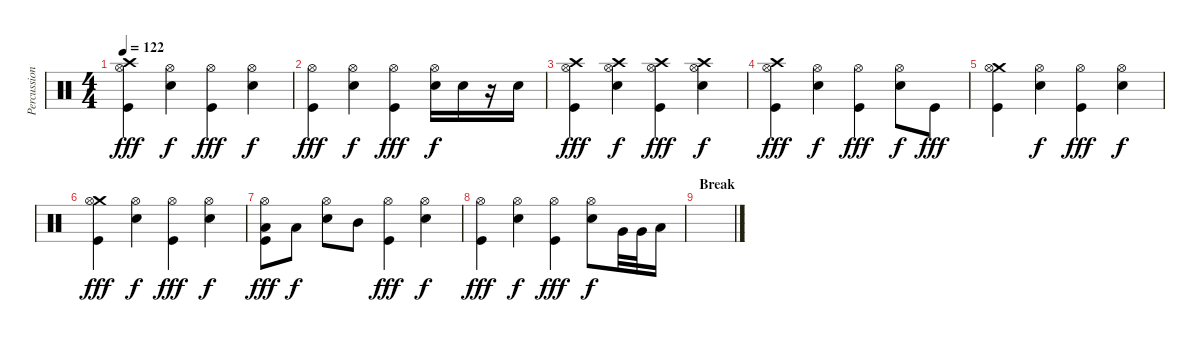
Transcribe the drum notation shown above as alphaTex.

\track ("Percussion" "Percussion") {instrument percussion}
\staff {score}
\articulation defaults
\ts (4 4)
\tempo 122
\clef neutral
\ks c
("Crash high (hit)" "Hi-Hat (open)" "Kick (hit)").4{dy fff} ("Hi-Hat (open)" "Electric Snare (hit)").4{dy f} ("Hi-Hat (open)" "Kick (hit)").4{dy fff} ("Hi-Hat (open)" "Electric Snare (hit)").4{dy f} |
("Hi-Hat (open)" "Kick (hit)").4{dy fff} ("Hi-Hat (open)" "Electric Snare (hit)").4{dy f} ("Hi-Hat (open)" "Kick (hit)").4{dy fff} ("Hi-Hat (open)" "Electric Snare (hit)").16{dy f} "Electric Snare (hit)".16 r.16 "Electric Snare (hit)".16 |
("Crash high (hit)" "Hi-Hat (open)" "Kick (hit)").4{dy fff} ("Crash high (hit)" "Hi-Hat (open)" "Electric Snare (hit)").4{dy f} ("Crash high (hit)" "Hi-Hat (open)" "Kick (hit)").4{dy fff} ("Crash high (hit)" "Hi-Hat (open)" "Electric Snare (hit)").4{dy f} |
("Crash high (hit)" "Hi-Hat (open)" "Kick (hit)").4{dy fff} ("Hi-Hat (open)" "Electric Snare (hit)").4{dy f} ("Hi-Hat (open)" "Kick (hit)").4{dy fff} ("Hi-Hat (open)" "Electric Snare (hit)").8{dy f} "Kick (hit)".8{dy fff} |
("Crash medium (hit)" "Hi-Hat (open)" "Kick (hit)").4 ("Hi-Hat (open)" "Electric Snare (hit)").4{dy f} ("Hi-Hat (open)" "Kick (hit)").4{dy fff} ("Hi-Hat (open)" "Electric Snare (hit)").4{dy f} |
("Crash medium (hit)" "Hi-Hat (open)" "Kick (hit)").4{dy fff} ("Hi-Hat (open)" "Electric Snare (hit)").4{dy f} ("Hi-Hat (open)" "Kick (hit)").4{dy fff} ("Hi-Hat (open)" "Electric Snare (hit)").4{dy f} |
("Hi-Hat (open)" "Low Tom (hit)" "Kick (hit)").8{dy fff} "Low Tom (hit)".8{dy f} ("Hi-Hat (open)" "Electric Snare (hit)").8 "Mid Tom (hit)".8 ("Hi-Hat (open)" "Kick (hit)").4{dy fff} ("Hi-Hat (open)" "Electric Snare (hit)").4{dy f} |
("Hi-Hat (open)" "Kick (hit)").4{dy fff} ("Hi-Hat (open)" "Electric Snare (hit)").4{dy f} ("Hi-Hat (open)" "Kick (hit)").4{dy fff} ("Hi-Hat (open)" "Electric Snare (hit)").8{dy f} "Very Low Tom (hit)".32 "Very Low Tom (hit)".32 "Low Floor Tom (hit)".16 |
\section ("" "Break")
